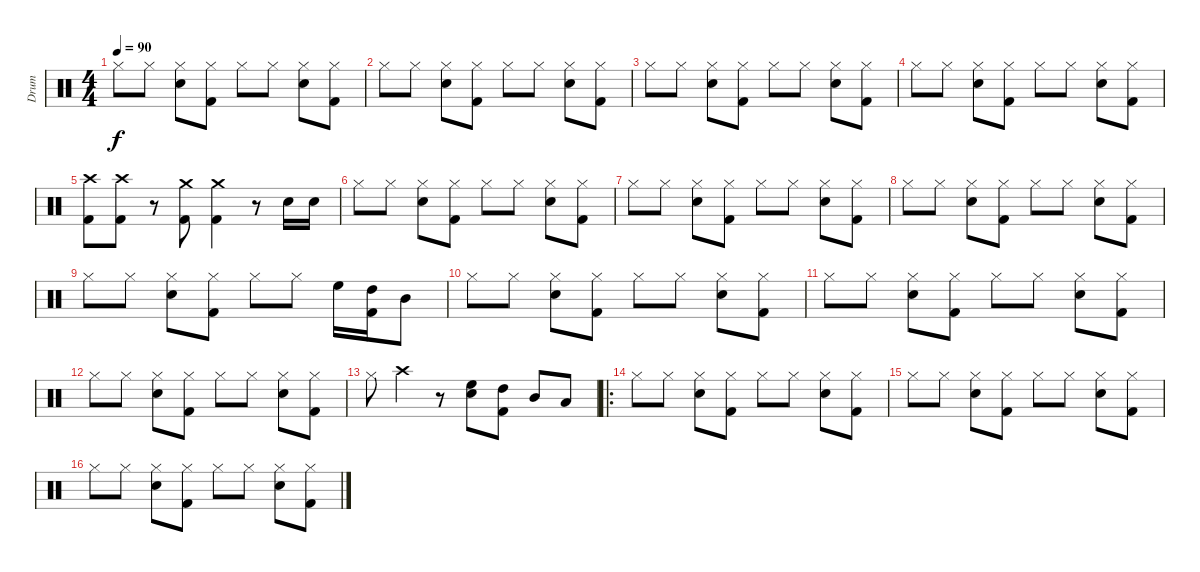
\track ("Drum" "Drum") {instrument percussion}
\staff {score}
\articulation defaults
\ts (4 4)
\tempo 90
\clef neutral
\ks c "Hi-Hat (closed)".8{dy f} "Hi-Hat (closed)".8
("Hi-Hat (closed)" "Snare (hit) 2").8 ("Hi-Hat (closed)" "Kick (hit) 2").8 "Hi-Hat (closed)".8 "Hi-Hat (closed)".8 ("Hi-Hat (closed)" "Snare (hit) 2").8 ("Hi-Hat (closed)" "Kick (hit) 2").8 |
"Hi-Hat (closed)".8 "Hi-Hat (closed)".8 ("Hi-Hat (closed)" "Snare (hit) 2").8 ("Hi-Hat (closed)" "Kick (hit) 2").8 "Hi-Hat (closed)".8 "Hi-Hat (closed)".8 ("Hi-Hat (closed)" "Snare (hit) 2").8 ("Hi-Hat (closed)" "Kick (hit) 2").8 |
"Hi-Hat (closed)".8 "Hi-Hat (closed)".8 ("Hi-Hat (closed)" "Snare (hit) 2").8 ("Hi-Hat (closed)" "Kick (hit) 2").8 "Hi-Hat (closed)".8 "Hi-Hat (closed)".8 ("Hi-Hat (closed)" "Snare (hit) 2").8 ("Hi-Hat (closed)" "Kick (hit) 2").8 |
"Hi-Hat (closed)".8 "Hi-Hat (closed)".8 ("Hi-Hat (closed)" "Snare (hit) 2").8 ("Hi-Hat (closed)" "Kick (hit) 2").8 "Hi-Hat (closed)".8 "Hi-Hat (closed)".8 ("Hi-Hat (closed)" "Snare (hit) 2").8 ("Hi-Hat (closed)" "Kick (hit) 2").8 |
("Crash high (hit)" "Kick (hit) 2").8 ("Crash high (hit)" "Kick (hit) 2").8 r.8 ("Crash medium (hit)" "Kick (hit) 2").8 ("Crash medium (hit)" "Kick (hit) 2").4 r.8 "Snare (hit) 2".16 "Snare (hit) 2".16 |
"Hi-Hat (closed)".8 "Hi-Hat (closed)".8 ("Hi-Hat (closed)" "Snare (hit) 2").8 ("Hi-Hat (closed)" "Kick (hit) 2").8 "Hi-Hat (closed)".8 "Hi-Hat (closed)".8 ("Hi-Hat (closed)" "Snare (hit) 2").8 ("Hi-Hat (closed)" "Kick (hit) 2").8 |
"Hi-Hat (closed)".8 "Hi-Hat (closed)".8 ("Hi-Hat (closed)" "Snare (hit) 2").8 ("Hi-Hat (closed)" "Kick (hit) 2").8 "Hi-Hat (closed)".8 "Hi-Hat (closed)".8 ("Hi-Hat (closed)" "Snare (hit) 2").8 ("Hi-Hat (closed)" "Kick (hit) 2").8 |
"Hi-Hat (closed)".8 "Hi-Hat (closed)".8 ("Hi-Hat (closed)" "Snare (hit) 2").8 ("Hi-Hat (closed)" "Kick (hit) 2").8 "Hi-Hat (closed)".8 "Hi-Hat (closed)".8 ("Hi-Hat (closed)" "Snare (hit) 2").8 ("Hi-Hat (closed)" "Kick (hit) 2").8 |
"Hi-Hat (closed)".8 "Hi-Hat (closed)".8 ("Hi-Hat (closed)" "Snare (hit) 2").8 ("Hi-Hat (closed)" "Kick (hit) 2").8 "Hi-Hat (closed)".8 "Hi-Hat (closed)".8 "High Floor Tom (hit)".16 ("High Tom (hit)" "Kick (hit) 2").16 "Mid Tom (hit)".8 |
"Hi-Hat (closed)".8 "Hi-Hat (closed)".8 ("Hi-Hat (closed)" "Snare (hit) 2").8 ("Hi-Hat (closed)" "Kick (hit) 2").8 "Hi-Hat (closed)".8 "Hi-Hat (closed)".8 ("Hi-Hat (closed)" "Snare (hit) 2").8 ("Hi-Hat (closed)" "Kick (hit) 2").8 |
"Hi-Hat (closed)".8 "Hi-Hat (closed)".8 ("Hi-Hat (closed)" "Snare (hit) 2").8 ("Hi-Hat (closed)" "Kick (hit) 2").8 "Hi-Hat (closed)".8 "Hi-Hat (closed)".8 ("Hi-Hat (closed)" "Snare (hit) 2").8 ("Hi-Hat (closed)" "Kick (hit) 2").8 |
"Hi-Hat (closed)".8 "Hi-Hat (closed)".8 ("Hi-Hat (closed)" "Snare (hit) 2").8 ("Hi-Hat (closed)" "Kick (hit) 2").8 "Hi-Hat (closed)".8 "Hi-Hat (closed)".8 ("Hi-Hat (closed)" "Snare (hit) 2").8 ("Hi-Hat (closed)" "Kick (hit) 2").8 |
"Hi-Hat (closed)".8 "Crash high (hit)".4 r.8 ("High Floor Tom (hit)" "Snare (hit) 2").8 ("High Tom (hit)" "Kick (hit) 2").8 "Mid Tom (hit)".8 "Low Tom (hit)".8 |
\ro "Hi-Hat (closed)".8 "Hi-Hat (closed)".8
("Hi-Hat (closed)" "Snare (hit) 2").8 ("Hi-Hat (closed)" "Kick (hit) 2").8 "Hi-Hat (closed)".8 "Hi-Hat (closed)".8 ("Hi-Hat (closed)" "Snare (hit) 2").8 ("Hi-Hat (closed)" "Kick (hit) 2").8 |
"Hi-Hat (closed)".8 "Hi-Hat (closed)".8 ("Hi-Hat (closed)" "Snare (hit) 2").8 ("Hi-Hat (closed)" "Kick (hit) 2").8 "Hi-Hat (closed)".8 "Hi-Hat (closed)".8 ("Hi-Hat (closed)" "Snare (hit) 2").8 ("Hi-Hat (closed)" "Kick (hit) 2").8 |
"Hi-Hat (closed)".8 "Hi-Hat (closed)".8 ("Hi-Hat (closed)" "Snare (hit) 2").8 ("Hi-Hat (closed)" "Kick (hit) 2").8 "Hi-Hat (closed)".8 "Hi-Hat (closed)".8 ("Hi-Hat (closed)" "Snare (hit) 2").8 ("Hi-Hat (closed)" "Kick (hit) 2").8
